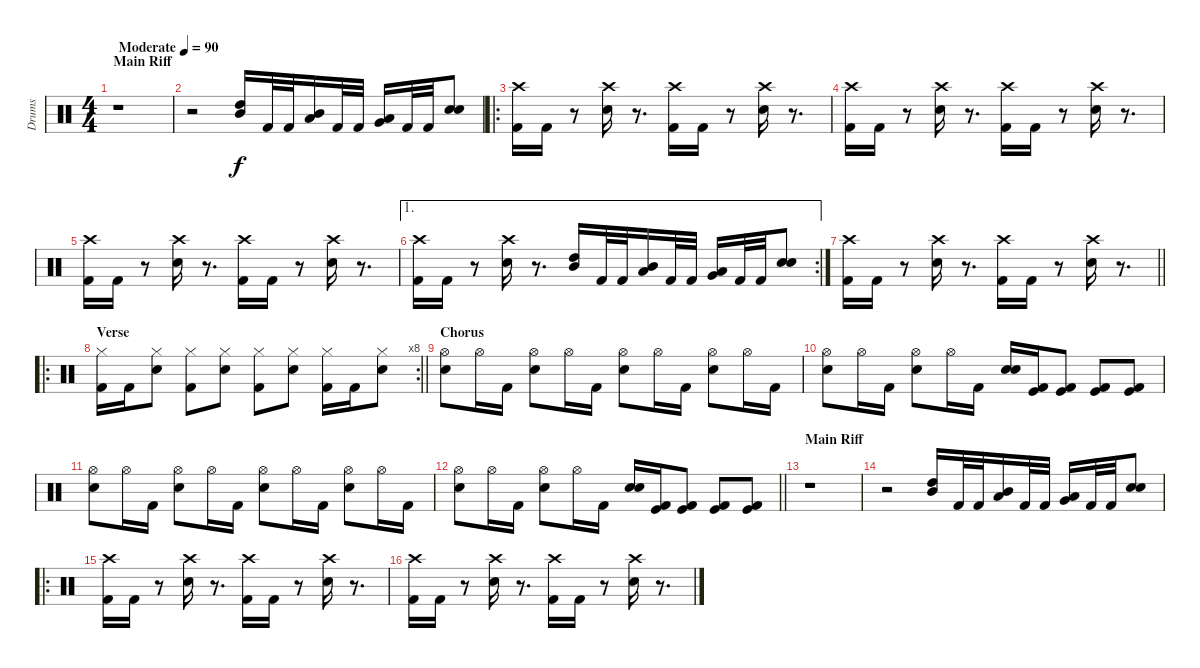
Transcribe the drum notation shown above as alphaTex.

\track ("Drums" "Drums") {instrument percussion}
\staff {score}
\articulation defaults
\ts (4 4)
\section ("" "Main Riff")
\tempo (90 "Moderate")
\clef neutral
\ks c
r.1{dy f} |
r.2 ("High Tom (hit)" "Mid Tom (hit)").16 "Kick (hit) 2".32 "Kick (hit) 2".32 ("Mid Tom (hit)" "Low Tom (hit)").16 "Kick (hit) 2".32 "Kick (hit) 2".32 ("Low Tom (hit)" "Very Low Tom (hit)").16 "Kick (hit) 2".32 "Kick (hit) 2".32 ("Electric Snare (hit)" "Snare (hit) 2").8{bd 120} |
\ro
("Crash high (hit)" "Kick (hit) 2").16 "Kick (hit) 2".16 r.8 ("Crash high (hit)" "Electric Snare (hit)").16 r.8{d} ("Crash high (hit)" "Kick (hit) 2").16 "Kick (hit) 2".16 r.8 ("Crash high (hit)" "Electric Snare (hit)").16 r.8{d} |
("Crash high (hit)" "Kick (hit) 2").16 "Kick (hit) 2".16 r.8 ("Crash high (hit)" "Electric Snare (hit)").16 r.8{d} ("Crash high (hit)" "Kick (hit) 2").16 "Kick (hit) 2".16 r.8 ("Crash high (hit)" "Electric Snare (hit)").16 r.8{d} |
("Crash high (hit)" "Kick (hit) 2").16 "Kick (hit) 2".16 r.8 ("Crash high (hit)" "Electric Snare (hit)").16 r.8{d} ("Crash high (hit)" "Kick (hit) 2").16 "Kick (hit) 2".16 r.8 ("Crash high (hit)" "Electric Snare (hit)").16 r.8{d} |
\ae 1
\rc 2
("Crash high (hit)" "Kick (hit) 2").16 "Kick (hit) 2".16 r.8 ("Crash high (hit)" "Electric Snare (hit)").16 r.8{d} ("High Tom (hit)" "Mid Tom (hit)").16 "Kick (hit) 2".32 "Kick (hit) 2".32 ("Mid Tom (hit)" "Low Tom (hit)").16 "Kick (hit) 2".32 "Kick (hit) 2".32 ("Low Tom (hit)" "Very Low Tom (hit)").16 "Kick (hit) 2".32 "Kick (hit) 2".32 ("Electric Snare (hit)" "Snare (hit) 2").8{bd 120} |
\barLineRight lightlight
("Crash high (hit)" "Kick (hit) 2").16 "Kick (hit) 2".16 r.8 ("Crash high (hit)" "Electric Snare (hit)").16 r.8{d} ("Crash high (hit)" "Kick (hit) 2").16 "Kick (hit) 2".16 r.8 ("Crash high (hit)" "Electric Snare (hit)").16 r.8{d} |
\ro
\rc 8
\section ("" "Verse")
\barLineRight lightlight
("Hi-Hat (closed)" "Kick (hit) 2").16 "Kick (hit) 2".16 ("Hi-Hat (closed)" "Electric Snare (hit)").8 ("Hi-Hat (closed)" "Kick (hit) 2").8 ("Hi-Hat (closed)" "Electric Snare (hit)").8 ("Hi-Hat (closed)" "Kick (hit) 2").8 ("Hi-Hat (closed)" "Electric Snare (hit)").8 ("Hi-Hat (closed)" "Kick (hit) 2").16 "Kick (hit) 2".16 ("Hi-Hat (closed)" "Electric Snare (hit)").8 |
\section ("" "Chorus")
("Hi-Hat (open)" "Electric Snare (hit)").8 "Hi-Hat (open)".16 "Kick (hit) 2".16 ("Hi-Hat (open)" "Electric Snare (hit)").8 "Hi-Hat (open)".16 "Kick (hit) 2".16 ("Hi-Hat (open)" "Electric Snare (hit)").8 "Hi-Hat (open)".16 "Kick (hit) 2".16 ("Hi-Hat (open)" "Electric Snare (hit)").8 "Hi-Hat (open)".16 "Kick (hit) 2".16 |
("Hi-Hat (open)" "Electric Snare (hit)").8 "Hi-Hat (open)".16 "Kick (hit) 2".16 ("Hi-Hat (open)" "Electric Snare (hit)").8 "Hi-Hat (open)".16 "Kick (hit) 2".16 ("Electric Snare (hit)" "Snare (hit) 2").16{bd 240} ("Kick (hit)" "Kick (hit) 2").16 ("Kick (hit)" "Kick (hit) 2").8 ("Kick (hit)" "Kick (hit) 2").8 ("Kick (hit)" "Kick (hit) 2").8 |
("Hi-Hat (open)" "Electric Snare (hit)").8 "Hi-Hat (open)".16 "Kick (hit) 2".16 ("Hi-Hat (open)" "Electric Snare (hit)").8 "Hi-Hat (open)".16 "Kick (hit) 2".16 ("Hi-Hat (open)" "Electric Snare (hit)").8 "Hi-Hat (open)".16 "Kick (hit) 2".16 ("Hi-Hat (open)" "Electric Snare (hit)").8 "Hi-Hat (open)".16 "Kick (hit) 2".16 |
\barLineRight lightlight
("Hi-Hat (open)" "Electric Snare (hit)").8 "Hi-Hat (open)".16 "Kick (hit) 2".16 ("Hi-Hat (open)" "Electric Snare (hit)").8 "Hi-Hat (open)".16 "Kick (hit) 2".16 ("Electric Snare (hit)" "Snare (hit) 2").16{bd 240} ("Kick (hit)" "Kick (hit) 2").16 ("Kick (hit)" "Kick (hit) 2").8 ("Kick (hit)" "Kick (hit) 2").8 ("Kick (hit)" "Kick (hit) 2").8 |
\section ("" "Main Riff")
r.1 |
r.2 ("High Tom (hit)" "Mid Tom (hit)").16 "Kick (hit) 2".32 "Kick (hit) 2".32 ("Mid Tom (hit)" "Low Tom (hit)").16 "Kick (hit) 2".32 "Kick (hit) 2".32 ("Low Tom (hit)" "Very Low Tom (hit)").16 "Kick (hit) 2".32 "Kick (hit) 2".32 ("Electric Snare (hit)" "Snare (hit) 2").8{bd 120} |
\ro
("Crash high (hit)" "Kick (hit) 2").16 "Kick (hit) 2".16 r.8 ("Crash high (hit)" "Electric Snare (hit)").16 r.8{d} ("Crash high (hit)" "Kick (hit) 2").16 "Kick (hit) 2".16 r.8 ("Crash high (hit)" "Electric Snare (hit)").16 r.8{d} |
("Crash high (hit)" "Kick (hit) 2").16 "Kick (hit) 2".16 r.8 ("Crash high (hit)" "Electric Snare (hit)").16 r.8{d} ("Crash high (hit)" "Kick (hit) 2").16 "Kick (hit) 2".16 r.8 ("Crash high (hit)" "Electric Snare (hit)").16 r.8{d}
